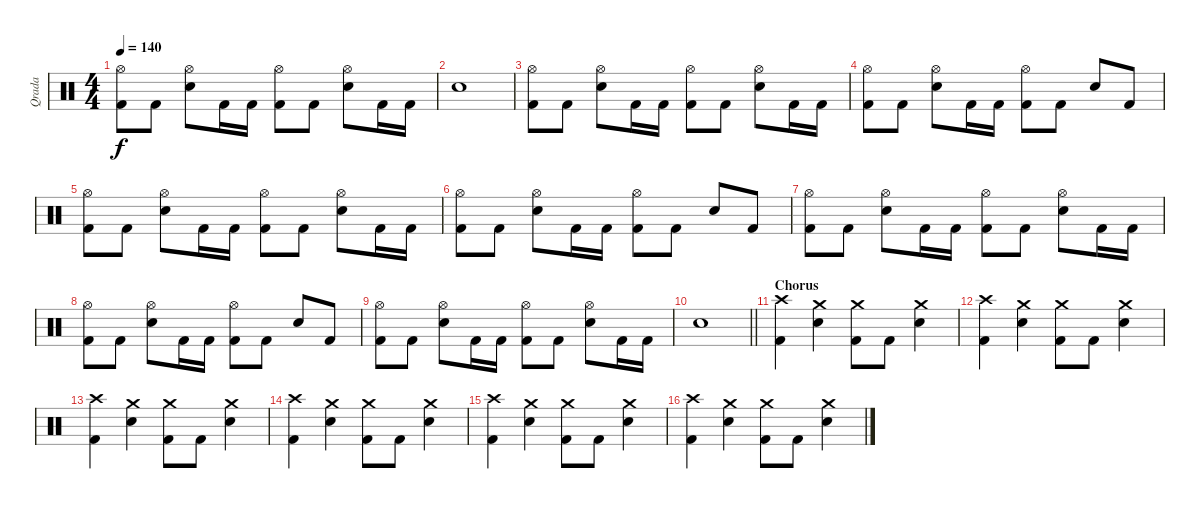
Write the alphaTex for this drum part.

\track ("Qrada" "Qrada") {instrument percussion}
\staff {score}
\articulation defaults
\ts (4 4)
\tempo 140
\clef neutral
\ks c
("Kick (hit) 2" "Hi-Hat (open)").8{dy f} "Kick (hit) 2".8 ("Snare (hit) 2" "Hi-Hat (open)").8 "Kick (hit) 2".16 "Kick (hit) 2".16 ("Kick (hit) 2" "Hi-Hat (open)").8 "Kick (hit) 2".8 ("Snare (hit) 2" "Hi-Hat (open)").8 "Kick (hit) 2".16 "Kick (hit) 2".16 |
"Snare (hit) 2".1 |
("Kick (hit) 2" "Hi-Hat (open)").8 "Kick (hit) 2".8 ("Snare (hit) 2" "Hi-Hat (open)").8 "Kick (hit) 2".16 "Kick (hit) 2".16 ("Kick (hit) 2" "Hi-Hat (open)").8 "Kick (hit) 2".8 ("Snare (hit) 2" "Hi-Hat (open)").8 "Kick (hit) 2".16 "Kick (hit) 2".16 |
("Kick (hit) 2" "Hi-Hat (open)").8 "Kick (hit) 2".8 ("Snare (hit) 2" "Hi-Hat (open)").8 "Kick (hit) 2".16 "Kick (hit) 2".16 ("Kick (hit) 2" "Hi-Hat (open)").8 "Kick (hit) 2".8 "Snare (hit) 2".8 "Kick (hit) 2".8 |
("Kick (hit) 2" "Hi-Hat (open)").8 "Kick (hit) 2".8 ("Snare (hit) 2" "Hi-Hat (open)").8 "Kick (hit) 2".16 "Kick (hit) 2".16 ("Kick (hit) 2" "Hi-Hat (open)").8 "Kick (hit) 2".8 ("Snare (hit) 2" "Hi-Hat (open)").8 "Kick (hit) 2".16 "Kick (hit) 2".16 |
("Kick (hit) 2" "Hi-Hat (open)").8 "Kick (hit) 2".8 ("Snare (hit) 2" "Hi-Hat (open)").8 "Kick (hit) 2".16 "Kick (hit) 2".16 ("Kick (hit) 2" "Hi-Hat (open)").8 "Kick (hit) 2".8 "Snare (hit) 2".8 "Kick (hit) 2".8 |
("Kick (hit) 2" "Hi-Hat (open)").8 "Kick (hit) 2".8 ("Snare (hit) 2" "Hi-Hat (open)").8 "Kick (hit) 2".16 "Kick (hit) 2".16 ("Kick (hit) 2" "Hi-Hat (open)").8 "Kick (hit) 2".8 ("Snare (hit) 2" "Hi-Hat (open)").8 "Kick (hit) 2".16 "Kick (hit) 2".16 |
("Kick (hit) 2" "Hi-Hat (open)").8 "Kick (hit) 2".8 ("Snare (hit) 2" "Hi-Hat (open)").8 "Kick (hit) 2".16 "Kick (hit) 2".16 ("Kick (hit) 2" "Hi-Hat (open)").8 "Kick (hit) 2".8 "Snare (hit) 2".8 "Kick (hit) 2".8 |
("Kick (hit) 2" "Hi-Hat (open)").8 "Kick (hit) 2".8 ("Snare (hit) 2" "Hi-Hat (open)").8 "Kick (hit) 2".16 "Kick (hit) 2".16 ("Kick (hit) 2" "Hi-Hat (open)").8 "Kick (hit) 2".8 ("Snare (hit) 2" "Hi-Hat (open)").8 "Kick (hit) 2".16 "Kick (hit) 2".16 |
\barLineRight lightlight "Snare (hit) 2".1
|
\section ("" "Chorus")
("Kick (hit) 2" "Crash high (hit)").4 ("Snare (hit) 2" "Crash medium (hit)").4 ("Kick (hit) 2" "Crash medium (hit)").8 "Kick (hit) 2".8 ("Snare (hit) 2" "Crash medium (hit)").4 |
("Kick (hit) 2" "Crash high (hit)").4 ("Snare (hit) 2" "Crash medium (hit)").4 ("Kick (hit) 2" "Crash medium (hit)").8 "Kick (hit) 2".8 ("Snare (hit) 2" "Crash medium (hit)").4 |
("Kick (hit) 2" "Crash high (hit)").4 ("Snare (hit) 2" "Crash medium (hit)").4 ("Kick (hit) 2" "Crash medium (hit)").8 "Kick (hit) 2".8 ("Snare (hit) 2" "Crash medium (hit)").4 |
("Kick (hit) 2" "Crash high (hit)").4 ("Snare (hit) 2" "Crash medium (hit)").4 ("Kick (hit) 2" "Crash medium (hit)").8 "Kick (hit) 2".8 ("Snare (hit) 2" "Crash medium (hit)").4 |
("Kick (hit) 2" "Crash high (hit)").4 ("Snare (hit) 2" "Crash medium (hit)").4 ("Kick (hit) 2" "Crash medium (hit)").8 "Kick (hit) 2".8 ("Snare (hit) 2" "Crash medium (hit)").4 |
("Kick (hit) 2" "Crash high (hit)").4 ("Snare (hit) 2" "Crash medium (hit)").4 ("Kick (hit) 2" "Crash medium (hit)").8 "Kick (hit) 2".8 ("Snare (hit) 2" "Crash medium (hit)").4
